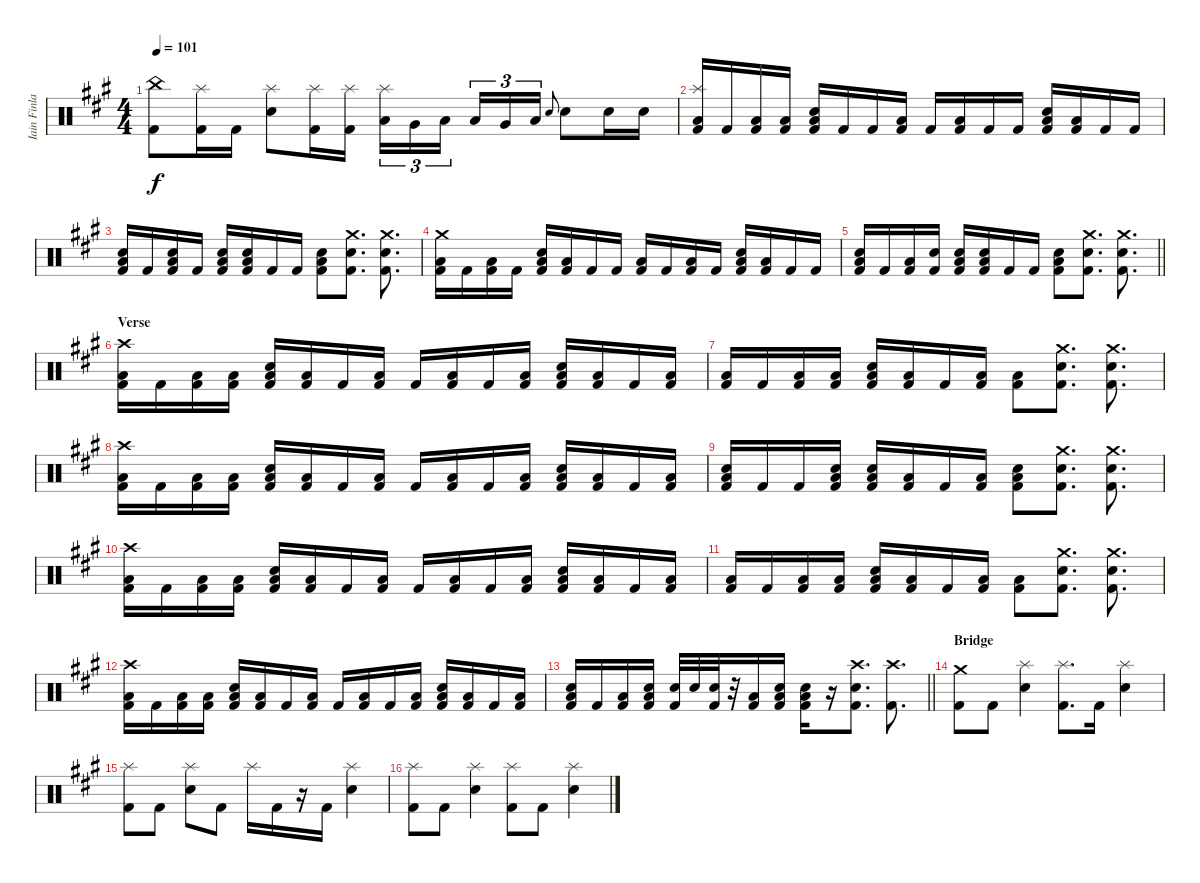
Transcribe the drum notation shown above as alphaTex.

\track ("Iain Finlay" "Iain Finla") {instrument percussion}
\staff {score}
\articulation defaults
\ts (4 4)
\tempo 101
\clef neutral
\ks f#minor
("China (hit)" "Kick (hit) 2").8{dy f} ("Splash (hit)" "Kick (hit) 2").16 "Kick (hit) 2".16 ("Splash (hit)" "Snare (hit) 2").8 ("Splash (hit)" "Kick (hit) 2").16 ("Splash (hit)" "Kick (hit) 2").16 ("Splash (hit)" "Low Tom (hit)").16{tu (3 2)} "Very Low Tom (hit)".16{tu (3 2)} "Low Floor Tom (hit)".16{tu (3 2) beam splitsecondary} "Low Floor Tom (hit)".16{tu (3 2)} "Very Low Tom (hit)".16{tu (3 2)} "Low Tom (hit)".16{tu (3 2)} "Snare (hit) 2".8{gr onbeat} "Snare (hit) 2".8 "Snare (hit) 2".16 "Snare (hit) 2".16 |
("Splash (hit)" "Low Floor Tom (hit)" "Kick (hit) 2").16 "Kick (hit) 2".16 ("Low Floor Tom (hit)" "Kick (hit) 2").16 ("Low Floor Tom (hit)" "Kick (hit) 2").16 ("Snare (hit) 2" "Low Tom (hit)" "Kick (hit) 2").16 "Kick (hit) 2".16 "Kick (hit) 2".16 ("Low Floor Tom (hit)" "Kick (hit) 2").16 "Kick (hit) 2".16 ("Low Floor Tom (hit)" "Kick (hit) 2").16 "Kick (hit) 2".16 "Kick (hit) 2".16 ("Snare (hit) 2" "Low Tom (hit)" "Kick (hit) 2").16 ("Low Tom (hit)" "Kick (hit) 2").16 "Kick (hit) 2".16 "Kick (hit) 2".16 |
("Snare (hit) 2" "Low Floor Tom (hit)" "Kick (hit) 2").16 "Kick (hit) 2".16 ("Snare (hit) 2" "Low Floor Tom (hit)" "Kick (hit) 2").16 "Kick (hit) 2".16 ("Snare (hit) 2" "Low Tom (hit)" "Kick (hit) 2").16 ("Snare (hit) 2" "Low Floor Tom (hit)" "Kick (hit) 2").16 "Kick (hit) 2".16 "Kick (hit) 2".16 ("Snare (hit) 2" "Low Tom (hit)" "Kick (hit) 2").8 ("Crash medium (hit)" "Snare (hit) 2" "Kick (hit) 2").8{d} ("Crash medium (hit)" "Snare (hit) 2" "Kick (hit) 2").8{d} |
("Crash medium (hit)" "Low Floor Tom (hit)" "Kick (hit) 2").16 "Kick (hit) 2".16 ("Low Floor Tom (hit)" "Kick (hit) 2").16 "Kick (hit) 2".16 ("Snare (hit) 2" "Low Tom (hit)" "Kick (hit) 2").16 ("Low Floor Tom (hit)" "Kick (hit) 2").16 "Kick (hit) 2".16 "Kick (hit) 2".16 ("Low Floor Tom (hit)" "Kick (hit) 2").16 "Kick (hit) 2".16 ("Low Floor Tom (hit)" "Kick (hit) 2").16 "Kick (hit) 2".16 ("Snare (hit) 2" "Low Tom (hit)" "Kick (hit) 2").16 ("Low Floor Tom (hit)" "Kick (hit) 2").16 "Kick (hit) 2".16 "Kick (hit) 2".16 |
\barLineRight lightlight
("Snare (hit) 2" "Low Tom (hit)" "Kick (hit) 2").16 "Kick (hit) 2".16 ("Low Floor Tom (hit)" "Kick (hit) 2").16 ("Snare (hit) 2" "Kick (hit) 2").16 ("Snare (hit) 2" "Low Tom (hit)" "Kick (hit) 2").16 ("Snare (hit) 2" "Low Tom (hit)" "Kick (hit) 2").16 "Kick (hit) 2".16 "Kick (hit) 2".16 ("Snare (hit) 2" "Low Tom (hit)" "Kick (hit) 2").8 ("Crash medium (hit)" "Snare (hit) 2" "Kick (hit) 2").8{d} ("Crash medium (hit)" "Snare (hit) 2" "Kick (hit) 2").8{d} |
\section ("" "Verse")
("Crash high (hit)" "Low Floor Tom (hit)" "Kick (hit) 2").16 "Kick (hit) 2".16 ("Low Floor Tom (hit)" "Kick (hit) 2").16 ("Low Floor Tom (hit)" "Kick (hit) 2").16 ("Snare (hit) 2" "Low Tom (hit)" "Kick (hit) 2").16 ("Low Floor Tom (hit)" "Kick (hit) 2").16 "Kick (hit) 2".16 ("Low Floor Tom (hit)" "Kick (hit) 2").16 "Kick (hit) 2".16 ("Low Floor Tom (hit)" "Kick (hit) 2").16 "Kick (hit) 2".16 ("Low Floor Tom (hit)" "Kick (hit) 2").16 ("Snare (hit) 2" "Low Tom (hit)" "Kick (hit) 2").16 ("Low Floor Tom (hit)" "Kick (hit) 2").16 "Kick (hit) 2".16 ("Low Floor Tom (hit)" "Kick (hit) 2").16 |
("Low Floor Tom (hit)" "Kick (hit) 2").16 "Kick (hit) 2".16 ("Low Floor Tom (hit)" "Kick (hit) 2").16 ("Low Floor Tom (hit)" "Kick (hit) 2").16 ("Snare (hit) 2" "Low Tom (hit)" "Kick (hit) 2").16 ("Low Floor Tom (hit)" "Kick (hit) 2").16 "Kick (hit) 2".16 ("Low Floor Tom (hit)" "Kick (hit) 2").16 ("Low Tom (hit)" "Kick (hit) 2").8 ("Crash medium (hit)" "Snare (hit) 2" "Kick (hit) 2").8{d} ("Crash medium (hit)" "Snare (hit) 2" "Kick (hit) 2").8{d} |
("Crash high (hit)" "Low Floor Tom (hit)" "Kick (hit) 2").16 "Kick (hit) 2".16 ("Low Floor Tom (hit)" "Kick (hit) 2").16 ("Low Floor Tom (hit)" "Kick (hit) 2").16 ("Snare (hit) 2" "Low Tom (hit)" "Kick (hit) 2").16 ("Low Floor Tom (hit)" "Kick (hit) 2").16 "Kick (hit) 2".16 ("Low Floor Tom (hit)" "Kick (hit) 2").16 "Kick (hit) 2".16 ("Low Floor Tom (hit)" "Kick (hit) 2").16 "Kick (hit) 2".16 ("Low Floor Tom (hit)" "Kick (hit) 2").16 ("Snare (hit) 2" "Low Tom (hit)" "Kick (hit) 2").16 ("Low Floor Tom (hit)" "Kick (hit) 2").16 "Kick (hit) 2".16 ("Low Floor Tom (hit)" "Kick (hit) 2").16 |
("Snare (hit) 2" "Low Floor Tom (hit)" "Kick (hit) 2").16 "Kick (hit) 2".16 "Kick (hit) 2".16 ("Snare (hit) 2" "Low Floor Tom (hit)" "Kick (hit) 2").16 ("Snare (hit) 2" "Low Tom (hit)" "Kick (hit) 2").16 ("Low Floor Tom (hit)" "Kick (hit) 2").16 "Kick (hit) 2".16 ("Low Floor Tom (hit)" "Kick (hit) 2").16 ("Snare (hit) 2" "Low Tom (hit)" "Kick (hit) 2").8 ("Crash medium (hit)" "Snare (hit) 2" "Kick (hit) 2").8{d} ("Crash medium (hit)" "Snare (hit) 2" "Kick (hit) 2").8{d} |
("Crash high (hit)" "Low Floor Tom (hit)" "Kick (hit) 2").16 "Kick (hit) 2".16 ("Low Floor Tom (hit)" "Kick (hit) 2").16 ("Low Floor Tom (hit)" "Kick (hit) 2").16 ("Snare (hit) 2" "Low Tom (hit)" "Kick (hit) 2").16 ("Low Floor Tom (hit)" "Kick (hit) 2").16 "Kick (hit) 2".16 ("Low Floor Tom (hit)" "Kick (hit) 2").16 "Kick (hit) 2".16 ("Low Floor Tom (hit)" "Kick (hit) 2").16 "Kick (hit) 2".16 ("Low Floor Tom (hit)" "Kick (hit) 2").16 ("Snare (hit) 2" "Low Tom (hit)" "Kick (hit) 2").16 ("Low Floor Tom (hit)" "Kick (hit) 2").16 "Kick (hit) 2".16 ("Low Floor Tom (hit)" "Kick (hit) 2").16 |
("Low Floor Tom (hit)" "Kick (hit) 2").16 "Kick (hit) 2".16 ("Low Floor Tom (hit)" "Kick (hit) 2").16 ("Low Floor Tom (hit)" "Kick (hit) 2").16 ("Snare (hit) 2" "Low Tom (hit)" "Kick (hit) 2").16 ("Low Floor Tom (hit)" "Kick (hit) 2").16 "Kick (hit) 2".16 ("Low Floor Tom (hit)" "Kick (hit) 2").16 ("Low Tom (hit)" "Kick (hit) 2").8 ("Crash medium (hit)" "Snare (hit) 2" "Kick (hit) 2").8{d} ("Crash medium (hit)" "Snare (hit) 2" "Kick (hit) 2").8{d} |
("Crash high (hit)" "Low Floor Tom (hit)" "Kick (hit) 2").16 "Kick (hit) 2".16 ("Low Floor Tom (hit)" "Kick (hit) 2").16 ("Low Floor Tom (hit)" "Kick (hit) 2").16 ("Snare (hit) 2" "Low Tom (hit)" "Kick (hit) 2").16 ("Low Floor Tom (hit)" "Kick (hit) 2").16 "Kick (hit) 2".16 ("Low Floor Tom (hit)" "Kick (hit) 2").16 "Kick (hit) 2".16 ("Low Floor Tom (hit)" "Kick (hit) 2").16 "Kick (hit) 2".16 ("Low Floor Tom (hit)" "Kick (hit) 2").16 ("Snare (hit) 2" "Low Tom (hit)" "Kick (hit) 2").16 ("Low Floor Tom (hit)" "Kick (hit) 2").16 "Kick (hit) 2".16 ("Low Floor Tom (hit)" "Kick (hit) 2").16 |
\barLineRight lightlight
("Snare (hit) 2" "Low Tom (hit)" "Kick (hit) 2").16 "Kick (hit) 2".16 ("Low Floor Tom (hit)" "Kick (hit) 2").16 ("Snare (hit) 2" "Low Tom (hit)" "Kick (hit) 2").16 ("Snare (hit) 2" "Kick (hit) 2").32 "Snare (hit) 2".32 ("Snare (hit) 2" "Kick (hit) 2").32 r.32 ("Low Floor Tom (hit)" "Kick (hit) 2").16 ("Snare (hit) 2" "Low Tom (hit)" "Kick (hit) 2").16 ("Snare (hit) 2" "Low Tom (hit)" "Kick (hit) 2").16 r.16 ("Crash high (hit)" "Snare (hit) 2" "Kick (hit) 2").8{d} ("Crash high (hit)" "Kick (hit) 2").8{d} |
\section ("" "Bridge")
("Crash medium (hit)" "Kick (hit) 2").8 "Kick (hit) 2".8 ("Splash (hit)" "Snare (hit) 2").4 ("Splash (hit)" "Kick (hit) 2").8{d} "Kick (hit) 2".16 ("Splash (hit)" "Snare (hit) 2").4 |
("Splash (hit)" "Kick (hit) 2").8 "Kick (hit) 2".8 ("Splash (hit)" "Snare (hit) 2").8 "Kick (hit) 2".8 "Splash (hit)".16 "Kick (hit) 2".16 r.16 "Kick (hit) 2".16 ("Splash (hit)" "Snare (hit) 2").4 |
("Splash (hit)" "Kick (hit) 2").8 "Kick (hit) 2".8 ("Splash (hit)" "Snare (hit) 2").4 ("Splash (hit)" "Kick (hit) 2").8 "Kick (hit) 2".8 ("Splash (hit)" "Snare (hit) 2").4
